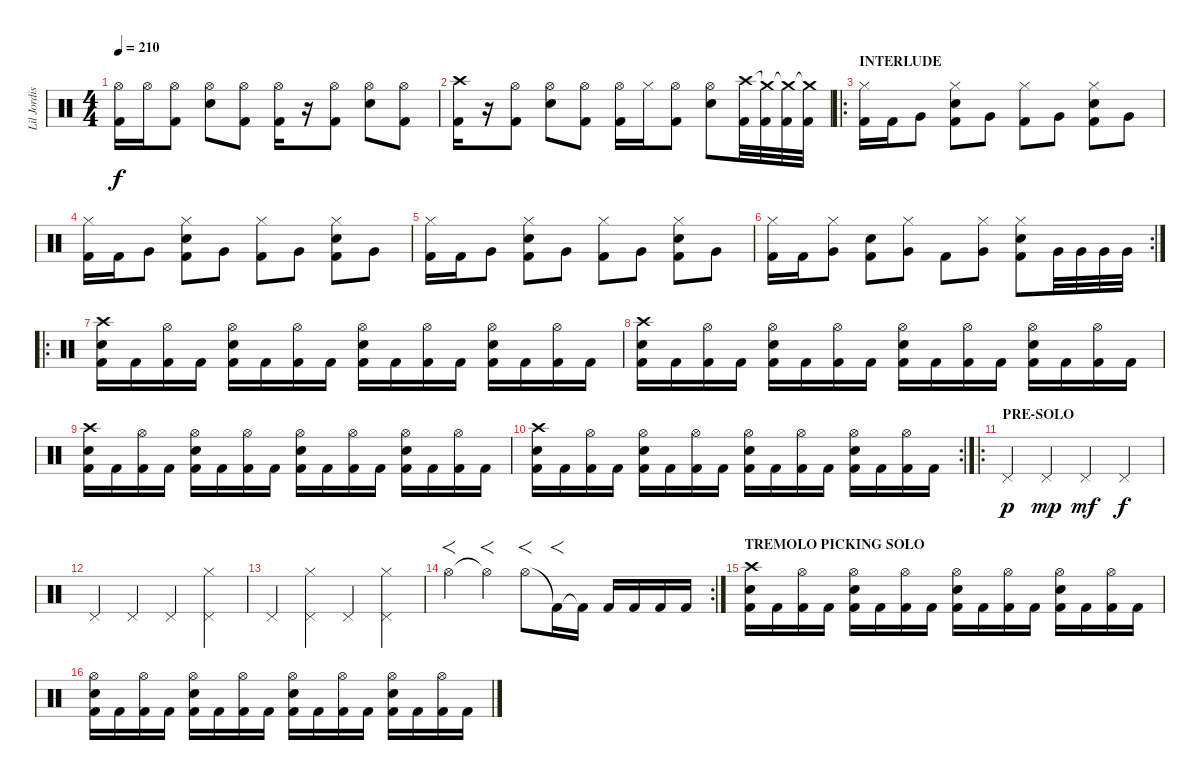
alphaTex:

\track ("Lil Jordison" "Lil Jordis") {instrument percussion}
\staff {score}
\articulation defaults
\ts (4 4)
\tempo 210
\clef neutral
\ks c
("Hi-Hat (open)" "Kick (hit) 2").16{dy f} "Hi-Hat (open)".16 ("Hi-Hat (open)" "Kick (hit) 2").8 ("Hi-Hat (open)" "Electric Snare (hit)").8 ("Hi-Hat (open)" "Kick (hit) 2").8 ("Hi-Hat (open)" "Kick (hit) 2").16 r.16 ("Hi-Hat (open)" "Kick (hit) 2").8 ("Hi-Hat (open)" "Electric Snare (hit)").8 ("Hi-Hat (open)" "Kick (hit) 2").8 |
("Crash high (hit)" "Kick (hit) 2").16 r.16 ("Hi-Hat (open)" "Kick (hit) 2").8 ("Hi-Hat (open)" "Electric Snare (hit)").8 ("Hi-Hat (open)" "Kick (hit) 2").8 ("Hi-Hat (open)" "Kick (hit) 2").16 "Hi-Hat (closed)".16 ("Hi-Hat (open)" "Kick (hit) 2").8 ("Hi-Hat (open)" "Electric Snare (hit)").8 ("Crash high (hit)" "Kick (hit) 2").32 ("Crash medium (hit)"{t} "Kick (hit) 2").32 ("Crash medium (hit)"{t} "Kick (hit) 2").32 ("Crash medium (hit)"{t} "Kick (hit) 2").32 |
\ro
\section ("" "INTERLUDE")
("Hi-Hat (closed)" "Kick (hit) 2").16 "Kick (hit) 2".16 "Very Low Tom (hit)".8 ("Hi-Hat (closed)" "Electric Snare (hit)" "Kick (hit) 2").8 "Very Low Tom (hit)".8 ("Hi-Hat (closed)" "Kick (hit) 2").8 "Very Low Tom (hit)".8 ("Hi-Hat (closed)" "Electric Snare (hit)" "Kick (hit) 2").8 "Very Low Tom (hit)".8 |
("Hi-Hat (closed)" "Kick (hit) 2").16 "Kick (hit) 2".16 "Very Low Tom (hit)".8 ("Hi-Hat (closed)" "Electric Snare (hit)" "Kick (hit) 2").8 "Very Low Tom (hit)".8 ("Hi-Hat (closed)" "Kick (hit) 2").8 "Very Low Tom (hit)".8 ("Hi-Hat (closed)" "Electric Snare (hit)" "Kick (hit) 2").8 "Very Low Tom (hit)".8 |
("Hi-Hat (closed)" "Kick (hit) 2").16 "Kick (hit) 2".16 "Very Low Tom (hit)".8 ("Hi-Hat (closed)" "Electric Snare (hit)" "Kick (hit) 2").8 "Very Low Tom (hit)".8 ("Hi-Hat (closed)" "Kick (hit) 2").8 "Very Low Tom (hit)".8 ("Hi-Hat (closed)" "Electric Snare (hit)" "Kick (hit) 2").8 "Very Low Tom (hit)".8 |
\rc 2
("Hi-Hat (closed)" "Kick (hit) 2").16 "Kick (hit) 2".16 ("Hi-Hat (closed)" "Very Low Tom (hit)").8 ("Electric Snare (hit)" "Kick (hit) 2").8 ("Hi-Hat (closed)" "Very Low Tom (hit)").8 "Kick (hit) 2".8 ("Hi-Hat (closed)" "Very Low Tom (hit)").8 ("Hi-Hat (closed)" "Electric Snare (hit)" "Kick (hit) 2").8 "Very Low Tom (hit)".32 "Very Low Tom (hit)".32 "Very Low Tom (hit)".32 "Very Low Tom (hit)".32 |
\ro
("Crash high (hit)" "Electric Snare (hit)" "Kick (hit) 2").16 "Kick (hit) 2".16 ("Hi-Hat (open)" "Kick (hit) 2").16 "Kick (hit) 2".16 ("Hi-Hat (open)" "Electric Snare (hit)" "Kick (hit) 2").16 "Kick (hit) 2".16 ("Hi-Hat (open)" "Kick (hit) 2").16 "Kick (hit) 2".16 ("Hi-Hat (open)" "Electric Snare (hit)" "Kick (hit) 2").16 "Kick (hit) 2".16 ("Hi-Hat (open)" "Kick (hit) 2").16 "Kick (hit) 2".16 ("Hi-Hat (open)" "Electric Snare (hit)" "Kick (hit) 2").16 "Kick (hit) 2".16 ("Hi-Hat (open)" "Kick (hit) 2").16 "Kick (hit) 2".16 |
("Crash high (hit)" "Electric Snare (hit)" "Kick (hit) 2").16 "Kick (hit) 2".16 ("Hi-Hat (open)" "Kick (hit) 2").16 "Kick (hit) 2".16 ("Hi-Hat (open)" "Electric Snare (hit)" "Kick (hit) 2").16 "Kick (hit) 2".16 ("Hi-Hat (open)" "Kick (hit) 2").16 "Kick (hit) 2".16 ("Hi-Hat (open)" "Electric Snare (hit)" "Kick (hit) 2").16 "Kick (hit) 2".16 ("Hi-Hat (open)" "Kick (hit) 2").16 "Kick (hit) 2".16 ("Hi-Hat (open)" "Electric Snare (hit)" "Kick (hit) 2").16 "Kick (hit) 2".16 ("Hi-Hat (open)" "Kick (hit) 2").16 "Kick (hit) 2".16 |
("Crash high (hit)" "Electric Snare (hit)" "Kick (hit) 2").16 "Kick (hit) 2".16 ("Hi-Hat (open)" "Kick (hit) 2").16 "Kick (hit) 2".16 ("Hi-Hat (open)" "Electric Snare (hit)" "Kick (hit) 2").16 "Kick (hit) 2".16 ("Hi-Hat (open)" "Kick (hit) 2").16 "Kick (hit) 2".16 ("Hi-Hat (open)" "Electric Snare (hit)" "Kick (hit) 2").16 "Kick (hit) 2".16 ("Hi-Hat (open)" "Kick (hit) 2").16 "Kick (hit) 2".16 ("Hi-Hat (open)" "Electric Snare (hit)" "Kick (hit) 2").16 "Kick (hit) 2".16 ("Hi-Hat (open)" "Kick (hit) 2").16 "Kick (hit) 2".16 |
\rc 2
("Crash high (hit)" "Electric Snare (hit)" "Kick (hit) 2").16 "Kick (hit) 2".16 ("Hi-Hat (open)" "Kick (hit) 2").16 "Kick (hit) 2".16 ("Hi-Hat (open)" "Electric Snare (hit)" "Kick (hit) 2").16 "Kick (hit) 2".16 ("Hi-Hat (open)" "Kick (hit) 2").16 "Kick (hit) 2".16 ("Hi-Hat (open)" "Electric Snare (hit)" "Kick (hit) 2").16 "Kick (hit) 2".16 ("Hi-Hat (open)" "Kick (hit) 2").16 "Kick (hit) 2".16 ("Hi-Hat (open)" "Electric Snare (hit)" "Kick (hit) 2").16 "Kick (hit) 2".16 ("Hi-Hat (open)" "Kick (hit) 2").16 "Kick (hit) 2".16 |
\ro
\section ("" "PRE-SOLO")
"Pedal Hi-Hat (hit)".4{dy p} "Pedal Hi-Hat (hit)".4{dy mp} "Pedal Hi-Hat (hit)".4{dy mf} "Pedal Hi-Hat (hit)".4{dy f} |
"Pedal Hi-Hat (hit)".4 "Pedal Hi-Hat (hit)".4 "Pedal Hi-Hat (hit)".4 ("Hi-Hat (closed)" "Pedal Hi-Hat (hit)").4 |
"Pedal Hi-Hat (hit)".4 ("Hi-Hat (closed)" "Pedal Hi-Hat (hit)").4 "Pedal Hi-Hat (hit)".4 ("Hi-Hat (closed)" "Pedal Hi-Hat (hit)").4 |
\rc 2 "Hi-Hat (open)".4{f} "Hi-Hat (open)"{t}.4{f} "Hi-Hat (open)".8{f} "Kick (hit) 2"{t}.16{f} "Kick (hit) 2"{t}.16 "Kick (hit) 2".16 "Kick (hit) 2".16 "Kick (hit) 2".16 "Kick (hit) 2".16
|
\section ("" "TREMOLO PICKING SOLO")
("Crash high (hit)" "Electric Snare (hit)" "Kick (hit) 2").16 "Kick (hit) 2".16 ("Hi-Hat (open)" "Kick (hit) 2").16 "Kick (hit) 2".16 ("Hi-Hat (open)" "Electric Snare (hit)" "Kick (hit) 2").16 "Kick (hit) 2".16 ("Hi-Hat (open)" "Kick (hit) 2").16 "Kick (hit) 2".16 ("Hi-Hat (open)" "Electric Snare (hit)" "Kick (hit) 2").16 "Kick (hit) 2".16 ("Hi-Hat (open)" "Kick (hit) 2").16 "Kick (hit) 2".16 ("Hi-Hat (open)" "Electric Snare (hit)" "Kick (hit) 2").16 "Kick (hit) 2".16 ("Hi-Hat (open)" "Kick (hit) 2").16 "Kick (hit) 2".16 |
("Hi-Hat (open)" "Electric Snare (hit)" "Kick (hit) 2").16 "Kick (hit) 2".16 ("Hi-Hat (open)" "Kick (hit) 2").16 "Kick (hit) 2".16 ("Hi-Hat (open)" "Electric Snare (hit)" "Kick (hit) 2").16 "Kick (hit) 2".16 ("Hi-Hat (open)" "Kick (hit) 2").16 "Kick (hit) 2".16 ("Hi-Hat (open)" "Electric Snare (hit)" "Kick (hit) 2").16 "Kick (hit) 2".16 ("Hi-Hat (open)" "Kick (hit) 2").16 "Kick (hit) 2".16 ("Hi-Hat (open)" "Electric Snare (hit)" "Kick (hit) 2").16 "Kick (hit) 2".16 ("Hi-Hat (open)" "Kick (hit) 2").16 "Kick (hit) 2".16
